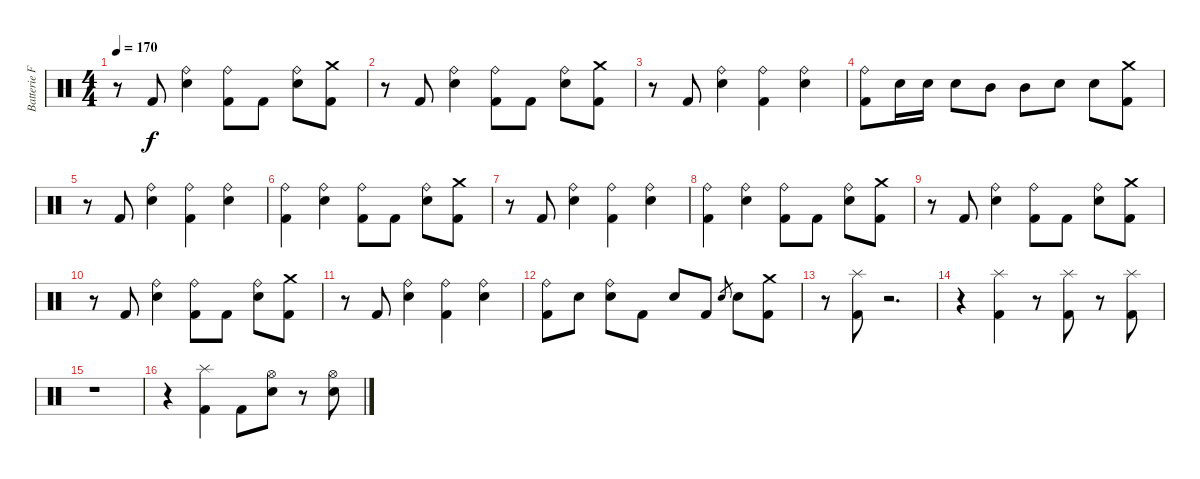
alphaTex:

\track ("Batterie Franck" "Batterie F") {instrument percussion}
\staff {score}
\articulation defaults
\ts (4 4)
\tempo 170
\clef neutral
\ks c
r.8{dy f} "Kick (hit) 2".8 ("Ride (bell)" "Snare (hit) 2").4 ("Ride (bell)" "Kick (hit) 2").8 "Kick (hit) 2".8 ("Ride (bell)" "Snare (hit) 2").8 ("Crash medium (hit)" "Kick (hit) 2").8 |
r.8 "Kick (hit) 2".8 ("Ride (bell)" "Snare (hit) 2").4 ("Ride (bell)" "Kick (hit) 2").8 "Kick (hit) 2".8 ("Ride (bell)" "Snare (hit) 2").8 ("Crash medium (hit)" "Kick (hit) 2").8 |
r.8 "Kick (hit) 2".8 ("Ride (bell)" "Snare (hit) 2").4 ("Ride (bell)" "Kick (hit) 2").4 ("Ride (bell)" "Snare (hit) 2").4 |
("Ride (bell)" "Kick (hit) 2").8 "Snare (hit) 2".16 "Snare (hit) 2".16 "Snare (hit) 2".8 "Mid Tom (hit)".8 "Mid Tom (hit)".8 "Snare (hit) 2".8 "Snare (hit) 2".8 ("Crash medium (hit)" "Kick (hit) 2").8 |
r.8 "Kick (hit) 2".8 ("Ride (bell)" "Snare (hit) 2").4 ("Ride (bell)" "Kick (hit) 2").4 ("Ride (bell)" "Snare (hit) 2").4 |
("Ride (bell)" "Kick (hit) 2").4 ("Ride (bell)" "Snare (hit) 2").4 ("Ride (bell)" "Kick (hit) 2").8 "Kick (hit) 2".8 ("Ride (bell)" "Snare (hit) 2").8 ("Crash medium (hit)" "Kick (hit) 2").8 |
r.8 "Kick (hit) 2".8 ("Ride (bell)" "Snare (hit) 2").4 ("Ride (bell)" "Kick (hit) 2").4 ("Ride (bell)" "Snare (hit) 2").4 |
("Ride (bell)" "Kick (hit) 2").4 ("Ride (bell)" "Snare (hit) 2").4 ("Ride (bell)" "Kick (hit) 2").8 "Kick (hit) 2".8 ("Ride (bell)" "Snare (hit) 2").8 ("Crash medium (hit)" "Kick (hit) 2").8 |
r.8 "Kick (hit) 2".8 ("Ride (bell)" "Snare (hit) 2").4 ("Ride (bell)" "Kick (hit) 2").8 "Kick (hit) 2".8 ("Ride (bell)" "Snare (hit) 2").8 ("Crash medium (hit)" "Kick (hit) 2").8 |
r.8 "Kick (hit) 2".8 ("Ride (bell)" "Snare (hit) 2").4 ("Ride (bell)" "Kick (hit) 2").8 "Kick (hit) 2".8 ("Ride (bell)" "Snare (hit) 2").8 ("Crash medium (hit)" "Kick (hit) 2").8 |
r.8 "Kick (hit) 2".8 ("Ride (bell)" "Snare (hit) 2").4 ("Ride (bell)" "Kick (hit) 2").4 ("Ride (bell)" "Snare (hit) 2").4 |
("Ride (bell)" "Kick (hit) 2").8 "Snare (hit) 2".8 ("Ride (bell)" "Snare (hit) 2").8 "Kick (hit) 2".8 "Snare (hit) 2".8 "Kick (hit) 2".8 "Snare (hit) 2".8{gr} "Snare (hit) 2".8 ("Crash medium (hit)" "Kick (hit) 2").8 |
r.8 ("Splash (hit)" "Kick (hit) 2").8 r.2{d} |
r.4 ("Splash (hit)" "Kick (hit) 2").4 r.8 ("Splash (hit)" "Kick (hit) 2").8 r.8 ("Splash (hit)" "Kick (hit) 2").8 |
r.1 |
r.4 ("Splash (hit)" "Kick (hit) 2").4 "Kick (hit) 2".8 ("Hi-Hat (open)" "Snare (hit) 2").8 r.8 ("Hi-Hat (open)" "Snare (hit) 2").8
